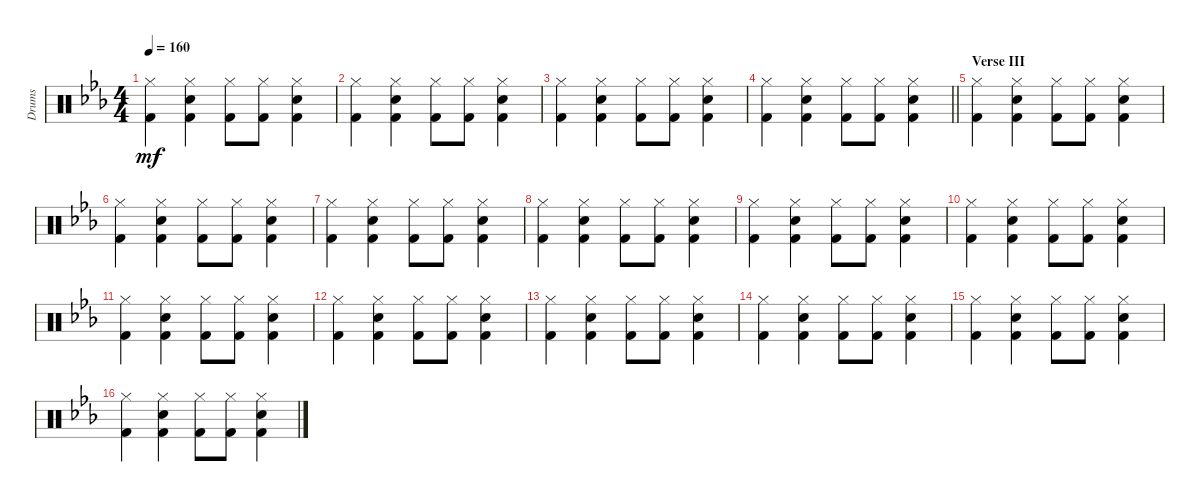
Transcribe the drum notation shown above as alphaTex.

\track ("Drums" "Drums") {instrument percussion}
\staff {score}
\articulation defaults
\ts (4 4)
\tempo 160
\clef neutral
\ks eb
("Hi-Hat (closed)" "Kick (hit) 2").4{dy mf} ("Hi-Hat (closed)" "Electric Snare (hit)" "Kick (hit) 2").4 ("Hi-Hat (closed)" "Kick (hit) 2").8 ("Hi-Hat (closed)" "Kick (hit) 2").8 ("Hi-Hat (closed)" "Electric Snare (hit)" "Kick (hit) 2").4 |
("Hi-Hat (closed)" "Kick (hit) 2").4 ("Hi-Hat (closed)" "Electric Snare (hit)" "Kick (hit) 2").4 ("Hi-Hat (closed)" "Kick (hit) 2").8 ("Hi-Hat (closed)" "Kick (hit) 2").8 ("Hi-Hat (closed)" "Electric Snare (hit)" "Kick (hit) 2").4 |
("Hi-Hat (closed)" "Kick (hit) 2").4 ("Hi-Hat (closed)" "Electric Snare (hit)" "Kick (hit) 2").4 ("Hi-Hat (closed)" "Kick (hit) 2").8 ("Hi-Hat (closed)" "Kick (hit) 2").8 ("Hi-Hat (closed)" "Electric Snare (hit)" "Kick (hit) 2").4 |
\barLineRight lightlight
("Hi-Hat (closed)" "Kick (hit) 2").4 ("Hi-Hat (closed)" "Electric Snare (hit)" "Kick (hit) 2").4 ("Hi-Hat (closed)" "Kick (hit) 2").8 ("Hi-Hat (closed)" "Kick (hit) 2").8 ("Hi-Hat (closed)" "Electric Snare (hit)" "Kick (hit) 2").4 |
\section ("" "Verse III")
("Hi-Hat (closed)" "Kick (hit) 2").4 ("Hi-Hat (closed)" "Electric Snare (hit)" "Kick (hit) 2").4 ("Hi-Hat (closed)" "Kick (hit) 2").8 ("Hi-Hat (closed)" "Kick (hit) 2").8 ("Hi-Hat (closed)" "Electric Snare (hit)" "Kick (hit) 2").4 |
("Hi-Hat (closed)" "Kick (hit) 2").4 ("Hi-Hat (closed)" "Electric Snare (hit)" "Kick (hit) 2").4 ("Hi-Hat (closed)" "Kick (hit) 2").8 ("Hi-Hat (closed)" "Kick (hit) 2").8 ("Hi-Hat (closed)" "Electric Snare (hit)" "Kick (hit) 2").4 |
("Hi-Hat (closed)" "Kick (hit) 2").4 ("Hi-Hat (closed)" "Electric Snare (hit)" "Kick (hit) 2").4 ("Hi-Hat (closed)" "Kick (hit) 2").8 ("Hi-Hat (closed)" "Kick (hit) 2").8 ("Hi-Hat (closed)" "Electric Snare (hit)" "Kick (hit) 2").4 |
("Hi-Hat (closed)" "Kick (hit) 2").4 ("Hi-Hat (closed)" "Electric Snare (hit)" "Kick (hit) 2").4 ("Hi-Hat (closed)" "Kick (hit) 2").8 ("Hi-Hat (closed)" "Kick (hit) 2").8 ("Hi-Hat (closed)" "Electric Snare (hit)" "Kick (hit) 2").4 |
("Hi-Hat (closed)" "Kick (hit) 2").4 ("Hi-Hat (closed)" "Electric Snare (hit)" "Kick (hit) 2").4 ("Hi-Hat (closed)" "Kick (hit) 2").8 ("Hi-Hat (closed)" "Kick (hit) 2").8 ("Hi-Hat (closed)" "Electric Snare (hit)" "Kick (hit) 2").4 |
("Hi-Hat (closed)" "Kick (hit) 2").4 ("Hi-Hat (closed)" "Electric Snare (hit)" "Kick (hit) 2").4 ("Hi-Hat (closed)" "Kick (hit) 2").8 ("Hi-Hat (closed)" "Kick (hit) 2").8 ("Hi-Hat (closed)" "Electric Snare (hit)" "Kick (hit) 2").4 |
("Hi-Hat (closed)" "Kick (hit) 2").4 ("Hi-Hat (closed)" "Electric Snare (hit)" "Kick (hit) 2").4 ("Hi-Hat (closed)" "Kick (hit) 2").8 ("Hi-Hat (closed)" "Kick (hit) 2").8 ("Hi-Hat (closed)" "Electric Snare (hit)" "Kick (hit) 2").4 |
("Hi-Hat (closed)" "Kick (hit) 2").4 ("Hi-Hat (closed)" "Electric Snare (hit)" "Kick (hit) 2").4 ("Hi-Hat (closed)" "Kick (hit) 2").8 ("Hi-Hat (closed)" "Kick (hit) 2").8 ("Hi-Hat (closed)" "Electric Snare (hit)" "Kick (hit) 2").4 |
("Hi-Hat (closed)" "Kick (hit) 2").4 ("Hi-Hat (closed)" "Electric Snare (hit)" "Kick (hit) 2").4 ("Hi-Hat (closed)" "Kick (hit) 2").8 ("Hi-Hat (closed)" "Kick (hit) 2").8 ("Hi-Hat (closed)" "Electric Snare (hit)" "Kick (hit) 2").4 |
("Hi-Hat (closed)" "Kick (hit) 2").4 ("Hi-Hat (closed)" "Electric Snare (hit)" "Kick (hit) 2").4 ("Hi-Hat (closed)" "Kick (hit) 2").8 ("Hi-Hat (closed)" "Kick (hit) 2").8 ("Hi-Hat (closed)" "Electric Snare (hit)" "Kick (hit) 2").4 |
("Hi-Hat (closed)" "Kick (hit) 2").4 ("Hi-Hat (closed)" "Electric Snare (hit)" "Kick (hit) 2").4 ("Hi-Hat (closed)" "Kick (hit) 2").8 ("Hi-Hat (closed)" "Kick (hit) 2").8 ("Hi-Hat (closed)" "Electric Snare (hit)" "Kick (hit) 2").4 |
("Hi-Hat (closed)" "Kick (hit) 2").4 ("Hi-Hat (closed)" "Electric Snare (hit)" "Kick (hit) 2").4 ("Hi-Hat (closed)" "Kick (hit) 2").8 ("Hi-Hat (closed)" "Kick (hit) 2").8 ("Hi-Hat (closed)" "Electric Snare (hit)" "Kick (hit) 2").4
